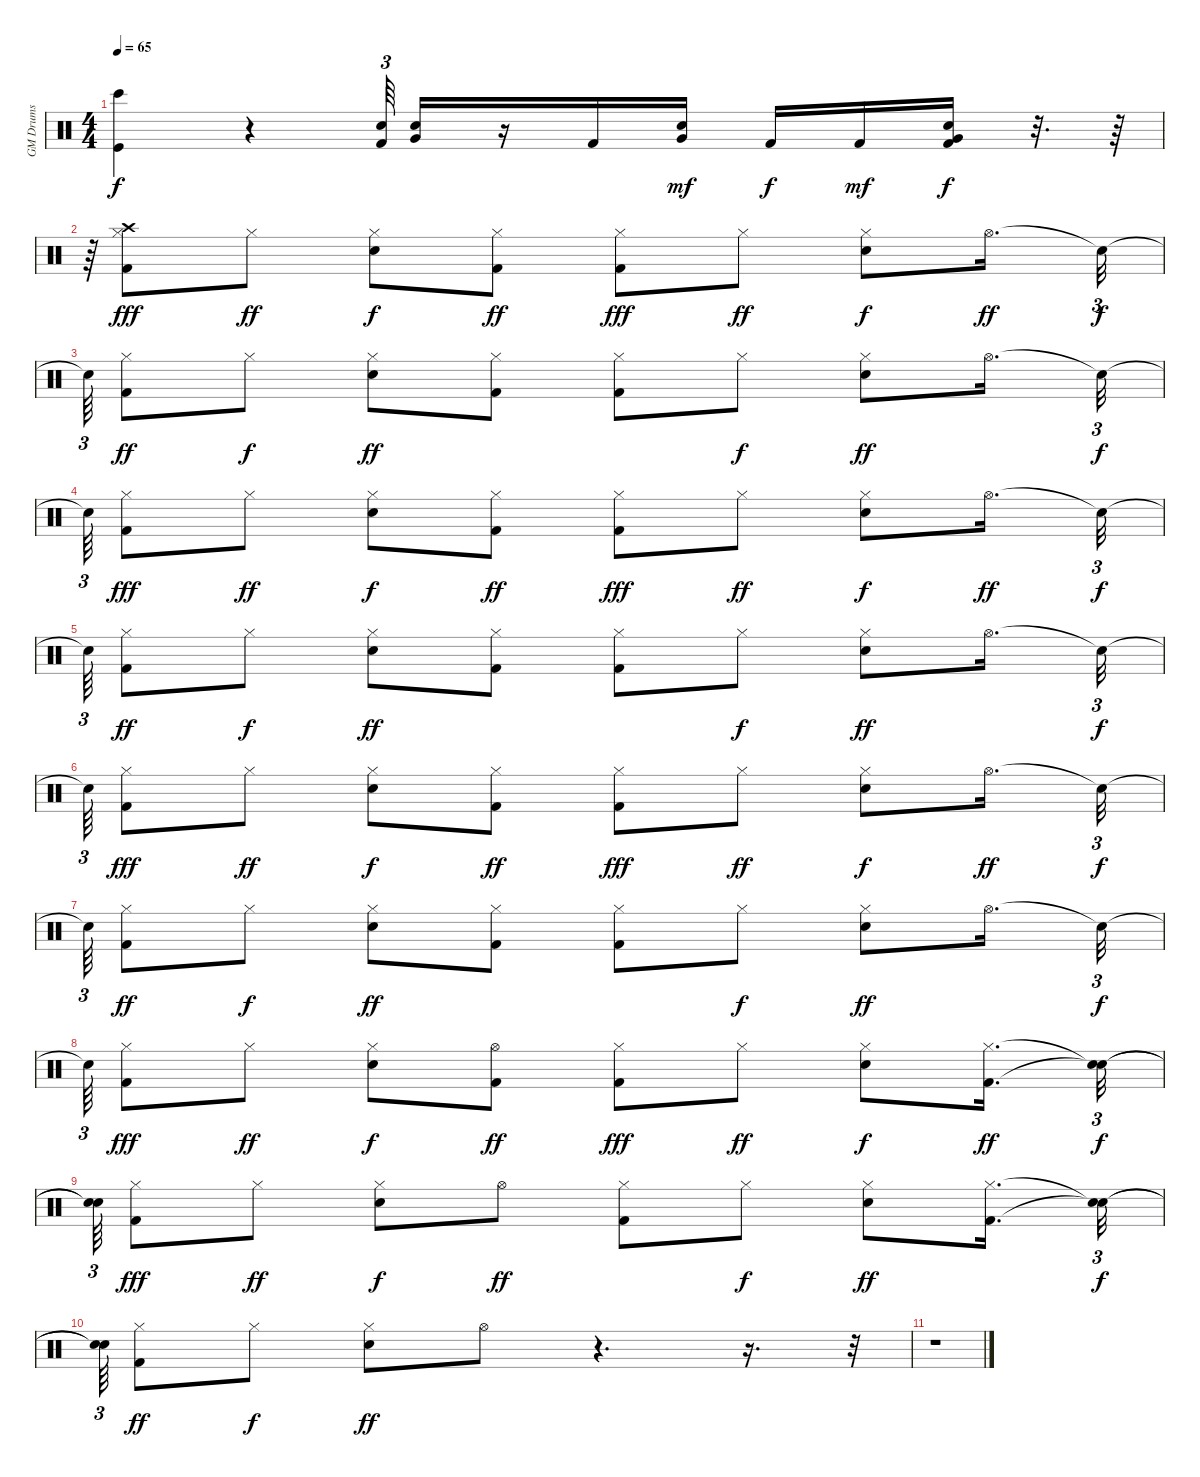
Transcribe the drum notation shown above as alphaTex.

\track ("GM Drums" "GM Drums") {instrument percussion}
\staff {score}
\articulation defaults
\ts (4 4)
\tempo 65
\clef neutral
\ks c
("Bongo High (hit)" "Kick (hit)").4{dy f} r.4 ("Kick (hit) 2" "Snare (hit) 2").64{tu (3 2)} ("Electric Snare (hit)" "Very Low Tom (hit)").16 r.16 "Kick (hit) 2".16 ("Snare (hit) 2" "Very Low Tom (hit)").16{dy mf} "Kick (hit) 2".16{dy f} "Kick (hit) 2".16{dy mf} ("Kick (hit) 2" "Snare (hit) 2" "Very Low Tom (hit)").16{dy f} r.32{d} r.64 |
r.64{tu (3 2)} ("Kick (hit) 2" "Hi-Hat (closed)" "Crash high (hit)").8{dy fff} "Hi-Hat (closed)".8{dy ff} ("Electric Snare (hit)" "Hi-Hat (closed)").8{dy f} ("Kick (hit) 2" "Hi-Hat (closed)").8{dy ff} ("Kick (hit) 2" "Hi-Hat (closed)").8{dy fff} "Hi-Hat (closed)".8{dy ff} ("Electric Snare (hit)" "Hi-Hat (closed)").8{dy f} "Hi-Hat (open)".16{d dy ff} "Snare (hit)"{t}.32{tu (3 2) dy f} |
"Snare (hit)"{t}.64{tu (3 2)} ("Kick (hit) 2" "Hi-Hat (closed)").8{dy ff} "Hi-Hat (closed)".8{dy f} ("Electric Snare (hit)" "Hi-Hat (closed)").8{dy ff} ("Kick (hit) 2" "Hi-Hat (closed)").8 ("Kick (hit) 2" "Hi-Hat (closed)").8 "Hi-Hat (closed)".8{dy f} ("Electric Snare (hit)" "Hi-Hat (closed)").8{dy ff} "Hi-Hat (open)".16{d} "Snare (hit)"{t}.32{tu (3 2) dy f} |
"Snare (hit)"{t}.64{tu (3 2)} ("Kick (hit) 2" "Hi-Hat (closed)").8{dy fff} "Hi-Hat (closed)".8{dy ff} ("Electric Snare (hit)" "Hi-Hat (closed)").8{dy f} ("Kick (hit) 2" "Hi-Hat (closed)").8{dy ff} ("Kick (hit) 2" "Hi-Hat (closed)").8{dy fff} "Hi-Hat (closed)".8{dy ff} ("Electric Snare (hit)" "Hi-Hat (closed)").8{dy f} "Hi-Hat (open)".16{d dy ff} "Snare (hit)"{t}.32{tu (3 2) dy f} |
"Snare (hit)"{t}.64{tu (3 2)} ("Kick (hit) 2" "Hi-Hat (closed)").8{dy ff} "Hi-Hat (closed)".8{dy f} ("Electric Snare (hit)" "Hi-Hat (closed)").8{dy ff} ("Kick (hit) 2" "Hi-Hat (closed)").8 ("Kick (hit) 2" "Hi-Hat (closed)").8 "Hi-Hat (closed)".8{dy f} ("Electric Snare (hit)" "Hi-Hat (closed)").8{dy ff} "Hi-Hat (open)".16{d} "Snare (hit)"{t}.32{tu (3 2) dy f} |
"Snare (hit)"{t}.64{tu (3 2)} ("Kick (hit) 2" "Hi-Hat (closed)").8{dy fff} "Hi-Hat (closed)".8{dy ff} ("Electric Snare (hit)" "Hi-Hat (closed)").8{dy f} ("Kick (hit) 2" "Hi-Hat (closed)").8{dy ff} ("Kick (hit) 2" "Hi-Hat (closed)").8{dy fff} "Hi-Hat (closed)".8{dy ff} ("Electric Snare (hit)" "Hi-Hat (closed)").8{dy f} "Hi-Hat (open)".16{d dy ff} "Snare (hit)"{t}.32{tu (3 2) dy f} |
"Snare (hit)"{t}.64{tu (3 2)} ("Kick (hit) 2" "Hi-Hat (closed)").8{dy ff} "Hi-Hat (closed)".8{dy f} ("Electric Snare (hit)" "Hi-Hat (closed)").8{dy ff} ("Kick (hit) 2" "Hi-Hat (closed)").8 ("Kick (hit) 2" "Hi-Hat (closed)").8 "Hi-Hat (closed)".8{dy f} ("Electric Snare (hit)" "Hi-Hat (closed)").8{dy ff} "Hi-Hat (open)".16{d} "Snare (hit)"{t}.32{tu (3 2) dy f} |
"Snare (hit)"{t}.64{tu (3 2)} ("Kick (hit) 2" "Hi-Hat (closed)").8{dy fff} "Hi-Hat (closed)".8{dy ff} ("Electric Snare (hit)" "Hi-Hat (closed)").8{dy f} ("Kick (hit) 2" "Hi-Hat (open)").8{dy ff} ("Kick (hit) 2" "Hi-Hat (closed)").8{dy fff} "Hi-Hat (closed)".8{dy ff} ("Electric Snare (hit)" "Hi-Hat (closed)").8{dy f} ("Kick (hit) 2" "Hi-Hat (closed)").16{d dy ff} ("Snare (hit)"{t} "Snare (hit)"{t}).32{tu (3 2) dy f} |
("Snare (hit)"{t} "Snare (hit)"{t}).64{tu (3 2)} ("Kick (hit) 2" "Hi-Hat (closed)").8{dy fff} "Hi-Hat (closed)".8{dy ff} ("Electric Snare (hit)" "Hi-Hat (closed)").8{dy f} "Hi-Hat (open)".8{dy ff} ("Kick (hit) 2" "Hi-Hat (closed)").8 "Hi-Hat (closed)".8{dy f} ("Electric Snare (hit)" "Hi-Hat (closed)").8{dy ff} ("Kick (hit) 2" "Hi-Hat (closed)").16{d} ("Snare (hit)"{t} "Snare (hit)"{t}).32{tu (3 2) dy f} |
("Snare (hit)"{t} "Snare (hit)"{t}).64{tu (3 2)} ("Kick (hit) 2" "Hi-Hat (closed)").8{dy ff} "Hi-Hat (closed)".8{dy f} ("Electric Snare (hit)" "Hi-Hat (closed)").8{dy ff} "Hi-Hat (open)".8 r.4{d} r.16{d} r.32{tu (3 2)} |
r.1
